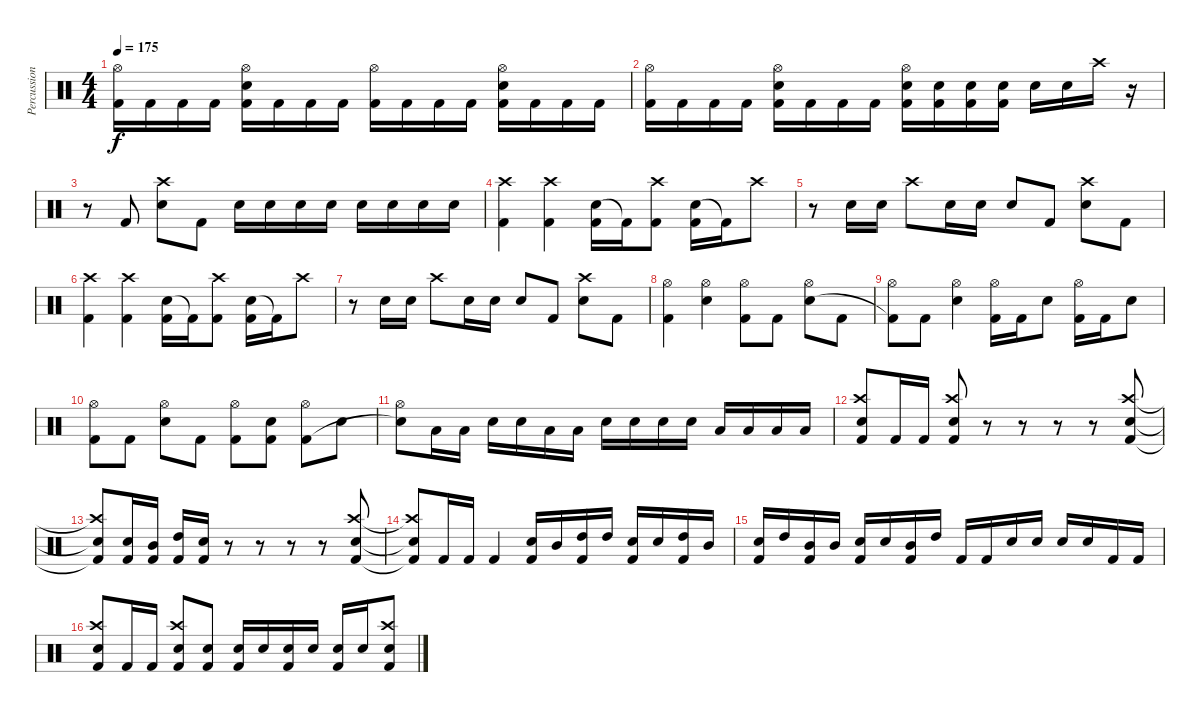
\track ("Percussion" "Percussion") {instrument percussion}
\staff {score}
\articulation defaults
\ts (4 4)
\tempo 175
\clef neutral
\ks c
("Hi-Hat (open)" "Kick (hit) 2").16{dy f} "Kick (hit) 2".16 "Kick (hit) 2".16 "Kick (hit) 2".16 ("Hi-Hat (open)" "Electric Snare (hit)" "Kick (hit) 2").16 "Kick (hit) 2".16 "Kick (hit) 2".16 "Kick (hit) 2".16 ("Hi-Hat (open)" "Kick (hit) 2").16 "Kick (hit) 2".16 "Kick (hit) 2".16 "Kick (hit) 2".16 ("Hi-Hat (open)" "Electric Snare (hit)" "Kick (hit) 2").16 "Kick (hit) 2".16 "Kick (hit) 2".16 "Kick (hit) 2".16 |
("Hi-Hat (open)" "Kick (hit) 2").16 "Kick (hit) 2".16 "Kick (hit) 2".16 "Kick (hit) 2".16 ("Hi-Hat (open)" "Electric Snare (hit)" "Kick (hit) 2").16 "Kick (hit) 2".16 "Kick (hit) 2".16 "Kick (hit) 2".16 ("Hi-Hat (open)" "Electric Snare (hit)" "Kick (hit) 2").16 ("Electric Snare (hit)" "Kick (hit) 2").16 ("Electric Snare (hit)" "Kick (hit) 2").16 ("Electric Snare (hit)" "Kick (hit) 2").16 "Electric Snare (hit)".16 "Electric Snare (hit)".16 "Crash high (hit)".16 r.16 |
r.8 "Kick (hit) 2".8 ("Crash high (hit)" "Electric Snare (hit)").8 "Kick (hit) 2".8 "Electric Snare (hit)".16 "Electric Snare (hit)".16 "Electric Snare (hit)".16 "Electric Snare (hit)".16 "Electric Snare (hit)".16 "Electric Snare (hit)".16 "Electric Snare (hit)".16 "Electric Snare (hit)".16 |
("Crash high (hit)" "Kick (hit) 2").4 ("Crash high (hit)" "Kick (hit) 2").4 ("Snare (hit) 2" "Kick (hit) 2").16 "Kick (hit) 2"{t}.16 ("Crash high (hit)" "Kick (hit) 2").8 ("Snare (hit) 2" "Kick (hit) 2").16 "Kick (hit) 2"{t}.16 "Crash high (hit)".8 |
r.8 "Snare (hit) 2".16 "Snare (hit) 2".16 "Crash high (hit)".8 "Snare (hit) 2".16 "Snare (hit) 2".16 "Snare (hit) 2".8 "Kick (hit) 2".8 ("Crash high (hit)" "Snare (hit) 2").8 "Kick (hit) 2".8 |
("Crash high (hit)" "Kick (hit) 2").4 ("Crash high (hit)" "Kick (hit) 2").4 ("Snare (hit) 2" "Kick (hit) 2").16 "Kick (hit) 2"{t}.16 ("Crash high (hit)" "Kick (hit) 2").8 ("Snare (hit) 2" "Kick (hit) 2").16 "Kick (hit) 2"{t}.16 "Crash high (hit)".8 |
r.8 "Snare (hit) 2".16 "Snare (hit) 2".16 "Crash high (hit)".8 "Snare (hit) 2".16 "Snare (hit) 2".16 "Snare (hit) 2".8 "Kick (hit) 2".8 ("Crash high (hit)" "Snare (hit) 2").8 "Kick (hit) 2".8 |
("Hi-Hat (open)" "Kick (hit) 2").4 ("Hi-Hat (open)" "Electric Snare (hit)").4 ("Hi-Hat (open)" "Kick (hit) 2").8 "Kick (hit) 2".8 ("Hi-Hat (open)" "Electric Snare (hit)").8 "Kick (hit) 2".8 |
("Hi-Hat (open)" "Kick (hit) 2"{t}).8 "Kick (hit) 2".8 ("Hi-Hat (open)" "Electric Snare (hit)").4 ("Hi-Hat (open)" "Kick (hit) 2").16 "Kick (hit) 2".16 "Electric Snare (hit)".8 ("Hi-Hat (open)" "Kick (hit) 2").16 "Kick (hit) 2".16 "Electric Snare (hit)".8 |
("Hi-Hat (open)" "Kick (hit) 2").8 "Kick (hit) 2".8 ("Hi-Hat (open)" "Electric Snare (hit)").8 "Kick (hit) 2".8 ("Hi-Hat (open)" "Kick (hit) 2").8 ("Electric Snare (hit)" "Kick (hit) 2").8 ("Hi-Hat (open)" "Kick (hit) 2").8 "Electric Snare (hit)".8 |
("Hi-Hat (open)" "Electric Snare (hit)"{t}).8 "Low Tom (hit)".16 "Low Tom (hit)".16 "Electric Snare (hit)".16 "Electric Snare (hit)".16 "Low Tom (hit)".16 "Low Tom (hit)".16 "Electric Snare (hit)".16 "Electric Snare (hit)".16 "Electric Snare (hit)".16 "Electric Snare (hit)".16 "Low Tom (hit)".16 "Low Tom (hit)".16 "Low Tom (hit)".16 "Low Tom (hit)".16 |
("Crash high (hit)" "Snare (hit) 2" "Kick (hit) 2").8 "Kick (hit) 2".16 "Kick (hit) 2".16 ("Crash high (hit)" "Snare (hit) 2" "Kick (hit) 2").8 r.8 r.8 r.8 r.8 ("Crash high (hit)" "Snare (hit) 2" "Kick (hit) 2").8 |
("Crash high (hit)"{t} "Snare (hit) 2"{t} "Kick (hit) 2"{t}).8 ("Snare (hit) 2" "Kick (hit) 2").16 ("Mid Tom (hit)" "Kick (hit) 2").16 ("High Tom (hit)" "Kick (hit) 2").16 ("Snare (hit) 2" "Kick (hit) 2").16 r.8 r.8 r.8 r.8 ("Crash high (hit)" "Snare (hit) 2" "Kick (hit) 2").8 |
("Crash high (hit)"{t} "Snare (hit) 2"{t} "Kick (hit) 2"{t}).8 "Kick (hit) 2".16 "Kick (hit) 2".16 "Kick (hit) 2".4 ("Snare (hit) 2" "Kick (hit) 2").16 "Mid Tom (hit)".16 ("High Tom (hit)" "Kick (hit) 2").16 "High Tom (hit)".16 ("Snare (hit) 2" "Kick (hit) 2").16 "Snare (hit) 2".16 ("High Tom (hit)" "Kick (hit) 2").16 "Mid Tom (hit)".16 |
("Snare (hit) 2" "Kick (hit) 2").16 "High Tom (hit)".16 ("Mid Tom (hit)" "Kick (hit) 2").16 "Mid Tom (hit)".16 ("Snare (hit) 2" "Kick (hit) 2").16 "Snare (hit) 2".16 ("Mid Tom (hit)" "Kick (hit) 2").16 "High Tom (hit)".16 "Kick (hit) 2".16 "Kick (hit) 2".16 "Snare (hit) 2".16 "Snare (hit) 2".16 "Snare (hit) 2".16 "Snare (hit) 2".16 "Kick (hit) 2".16 "Kick (hit) 2".16 |
("Crash high (hit)" "Snare (hit) 2" "Kick (hit) 2").8 "Kick (hit) 2".16 "Kick (hit) 2".16 ("Crash high (hit)" "Snare (hit) 2" "Kick (hit) 2").8 ("Snare (hit) 2" "Kick (hit) 2").8 ("Snare (hit) 2" "Kick (hit) 2").16 "Snare (hit) 2".16 ("Snare (hit) 2" "Kick (hit) 2").16 "Snare (hit) 2".16 ("Snare (hit) 2" "Kick (hit) 2").16 "Snare (hit) 2".16 ("Crash high (hit)" "Snare (hit) 2" "Kick (hit) 2").8
